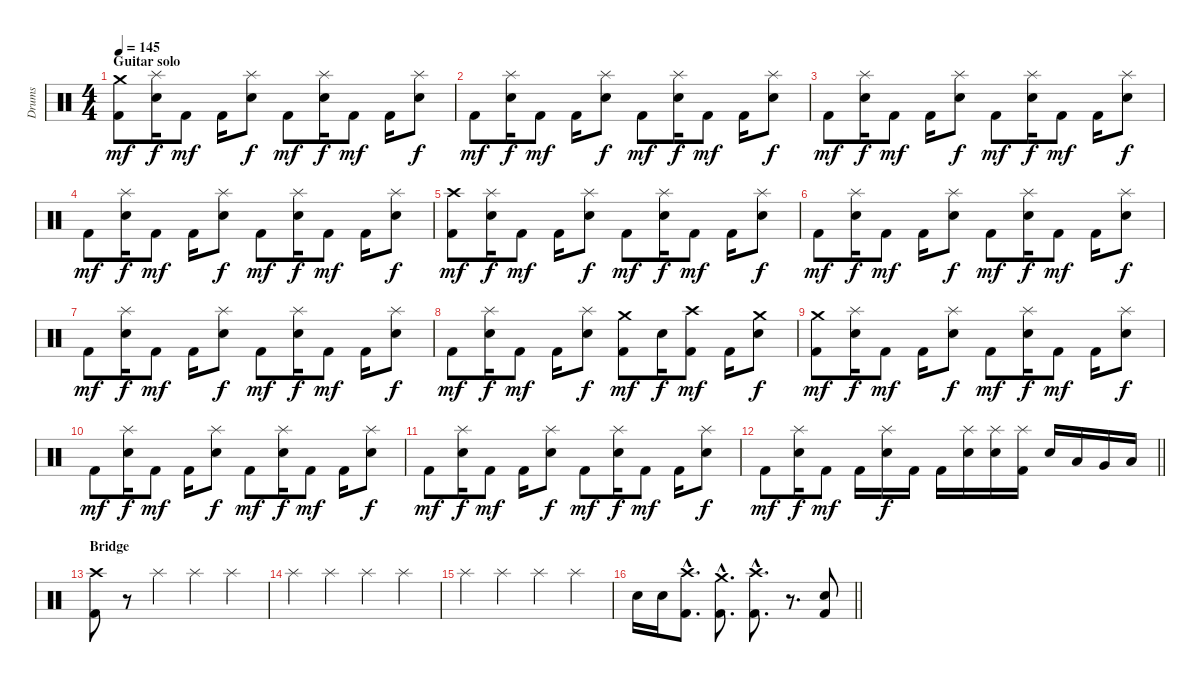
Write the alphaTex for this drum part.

\track ("Drums" "Drums") {instrument percussion}
\staff {score}
\articulation defaults
\ts (4 4)
\section ("" "Guitar solo")
\tempo 145
\clef neutral
\ks c
("Kick (hit) 2" "Crash medium (hit)").8{dy mf} ("Electric Snare (hit)" "Splash (hit)").16{dy f} "Kick (hit) 2".8{dy mf} "Kick (hit) 2".16 ("Electric Snare (hit)" "Splash (hit)").8{dy f} "Kick (hit) 2".8{dy mf} ("Electric Snare (hit)" "Splash (hit)").16{dy f} "Kick (hit) 2".8{dy mf} "Kick (hit) 2".16 ("Electric Snare (hit)" "Splash (hit)").8{dy f} |
"Kick (hit) 2".8{dy mf} ("Electric Snare (hit)" "Splash (hit)").16{dy f} "Kick (hit) 2".8{dy mf} "Kick (hit) 2".16 ("Electric Snare (hit)" "Splash (hit)").8{dy f} "Kick (hit) 2".8{dy mf} ("Electric Snare (hit)" "Splash (hit)").16{dy f} "Kick (hit) 2".8{dy mf} "Kick (hit) 2".16 ("Electric Snare (hit)" "Splash (hit)").8{dy f} |
"Kick (hit) 2".8{dy mf} ("Electric Snare (hit)" "Splash (hit)").16{dy f} "Kick (hit) 2".8{dy mf} "Kick (hit) 2".16 ("Electric Snare (hit)" "Splash (hit)").8{dy f} "Kick (hit) 2".8{dy mf} ("Electric Snare (hit)" "Splash (hit)").16{dy f} "Kick (hit) 2".8{dy mf} "Kick (hit) 2".16 ("Electric Snare (hit)" "Splash (hit)").8{dy f} |
"Kick (hit) 2".8{dy mf} ("Electric Snare (hit)" "Splash (hit)").16{dy f} "Kick (hit) 2".8{dy mf} "Kick (hit) 2".16 ("Electric Snare (hit)" "Splash (hit)").8{dy f} "Kick (hit) 2".8{dy mf} ("Electric Snare (hit)" "Splash (hit)").16{dy f} "Kick (hit) 2".8{dy mf} "Kick (hit) 2".16 ("Electric Snare (hit)" "Splash (hit)").8{dy f} |
("Kick (hit) 2" "Crash high (hit)").8{dy mf} ("Electric Snare (hit)" "Splash (hit)").16{dy f} "Kick (hit) 2".8{dy mf} "Kick (hit) 2".16 ("Electric Snare (hit)" "Splash (hit)").8{dy f} "Kick (hit) 2".8{dy mf} ("Electric Snare (hit)" "Splash (hit)").16{dy f} "Kick (hit) 2".8{dy mf} "Kick (hit) 2".16 ("Electric Snare (hit)" "Splash (hit)").8{dy f} |
"Kick (hit) 2".8{dy mf} ("Electric Snare (hit)" "Splash (hit)").16{dy f} "Kick (hit) 2".8{dy mf} "Kick (hit) 2".16 ("Electric Snare (hit)" "Splash (hit)").8{dy f} "Kick (hit) 2".8{dy mf} ("Electric Snare (hit)" "Splash (hit)").16{dy f} "Kick (hit) 2".8{dy mf} "Kick (hit) 2".16 ("Electric Snare (hit)" "Splash (hit)").8{dy f} |
"Kick (hit) 2".8{dy mf} ("Electric Snare (hit)" "Splash (hit)").16{dy f} "Kick (hit) 2".8{dy mf} "Kick (hit) 2".16 ("Electric Snare (hit)" "Splash (hit)").8{dy f} "Kick (hit) 2".8{dy mf} ("Electric Snare (hit)" "Splash (hit)").16{dy f} "Kick (hit) 2".8{dy mf} "Kick (hit) 2".16 ("Electric Snare (hit)" "Splash (hit)").8{dy f} |
"Kick (hit) 2".8{dy mf} ("Electric Snare (hit)" "Splash (hit)").16{dy f} "Kick (hit) 2".8{dy mf} "Kick (hit) 2".16 ("Electric Snare (hit)" "Splash (hit)").8{dy f} ("Kick (hit) 2" "Crash medium (hit)").8{dy mf} "Electric Snare (hit)".16{dy f} ("Kick (hit) 2" "Crash high (hit)").8{dy mf} "Kick (hit) 2".16 ("Electric Snare (hit)" "Crash medium (hit)").8{dy f} |
("Kick (hit) 2" "Crash medium (hit)").8{dy mf} ("Electric Snare (hit)" "Splash (hit)").16{dy f} "Kick (hit) 2".8{dy mf} "Kick (hit) 2".16 ("Electric Snare (hit)" "Splash (hit)").8{dy f} "Kick (hit) 2".8{dy mf} ("Electric Snare (hit)" "Splash (hit)").16{dy f} "Kick (hit) 2".8{dy mf} "Kick (hit) 2".16 ("Electric Snare (hit)" "Splash (hit)").8{dy f} |
"Kick (hit) 2".8{dy mf} ("Electric Snare (hit)" "Splash (hit)").16{dy f} "Kick (hit) 2".8{dy mf} "Kick (hit) 2".16 ("Electric Snare (hit)" "Splash (hit)").8{dy f} "Kick (hit) 2".8{dy mf} ("Electric Snare (hit)" "Splash (hit)").16{dy f} "Kick (hit) 2".8{dy mf} "Kick (hit) 2".16 ("Electric Snare (hit)" "Splash (hit)").8{dy f} |
"Kick (hit) 2".8{dy mf} ("Electric Snare (hit)" "Splash (hit)").16{dy f} "Kick (hit) 2".8{dy mf} "Kick (hit) 2".16 ("Electric Snare (hit)" "Splash (hit)").8{dy f} "Kick (hit) 2".8{dy mf} ("Electric Snare (hit)" "Splash (hit)").16{dy f} "Kick (hit) 2".8{dy mf} "Kick (hit) 2".16 ("Electric Snare (hit)" "Splash (hit)").8{dy f} |
\barLineRight lightlight "Kick (hit) 2".8{dy mf}
("Electric Snare (hit)" "Splash (hit)").16{dy f} "Kick (hit) 2".8{dy mf} "Kick (hit) 2".16 ("Electric Snare (hit)" "Splash (hit)").16{dy f} "Kick (hit) 2".16 "Kick (hit) 2".16 ("Electric Snare (hit)" "Splash (hit)").16 ("Electric Snare (hit)" "Splash (hit)").16 ("Kick (hit) 2" "Splash (hit)").16 "Electric Snare (hit)".16 "Low Tom (hit)".16 "Very Low Tom (hit)".16 "Low Floor Tom (hit)".16 |
\section ("" "Bridge")
("Kick (hit) 2" "Crash high (hit)").8 r.8 "Splash (hit)".4 "Splash (hit)".4 "Splash (hit)".4 |
"Splash (hit)".4 "Splash (hit)".4 "Splash (hit)".4 "Splash (hit)".4 |
"Splash (hit)".4 "Splash (hit)".4 "Splash (hit)".4 "Splash (hit)".4 |
\barLineRight lightlight "Electric Snare (hit)".16 "Electric Snare (hit)".16
("Kick (hit) 2"{hac} "Crash high (hit)"{hac}).8{d} ("Kick (hit) 2"{hac} "Crash medium (hit)"{hac}).8{d} ("Kick (hit) 2"{hac} "Crash high (hit)"{hac}).8{d} r.8{d} ("Kick (hit) 2" "Electric Snare (hit)").8
